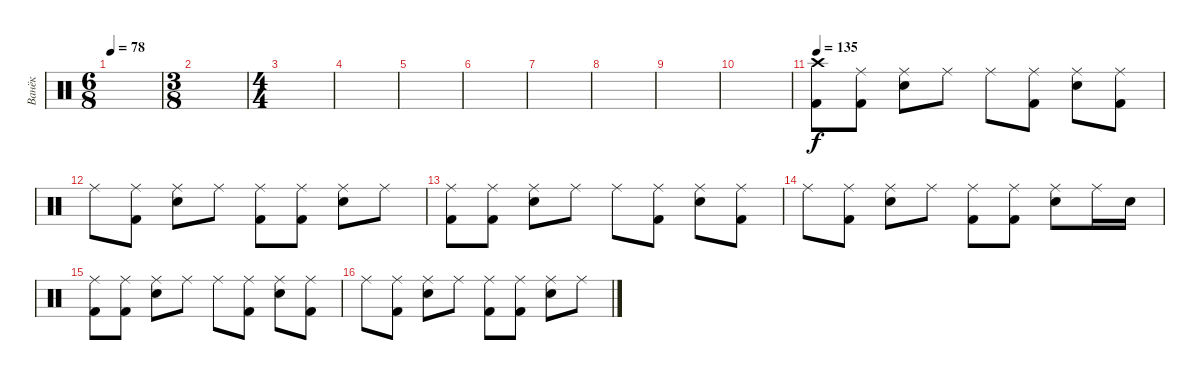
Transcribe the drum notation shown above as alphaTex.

\track ("Ванёк" "Ванёк") {instrument percussion}
\staff {score}
\articulation defaults
\ts (6 8)
\tempo 78
\clef neutral
\ks c
|
\ts (3 8)
|
\ts (4 4)
|
|
|
|
|
|
|
|
\tempo 135
("Crash high (hit)" "Kick (hit) 2").8 ("Ride (middle)" "Kick (hit) 2").8 ("Ride (middle)" "Snare (hit) 2").8 "Ride (middle)".8 "Ride (middle)".8 ("Ride (middle)" "Kick (hit) 2").8 ("Ride (middle)" "Snare (hit) 2").8 ("Ride (middle)" "Kick (hit) 2").8 |
"Ride (middle)".8 ("Ride (middle)" "Kick (hit) 2").8 ("Ride (middle)" "Snare (hit) 2").8 "Ride (middle)".8 ("Ride (middle)" "Kick (hit) 2").8 ("Ride (middle)" "Kick (hit) 2").8 ("Ride (middle)" "Snare (hit) 2").8 "Ride (middle)".8 |
("Ride (middle)" "Kick (hit) 2").8 ("Ride (middle)" "Kick (hit) 2").8 ("Ride (middle)" "Snare (hit) 2").8 "Ride (middle)".8 "Ride (middle)".8 ("Ride (middle)" "Kick (hit) 2").8 ("Ride (middle)" "Snare (hit) 2").8 ("Ride (middle)" "Kick (hit) 2").8 |
"Ride (middle)".8 ("Ride (middle)" "Kick (hit) 2").8 ("Ride (middle)" "Snare (hit) 2").8 "Ride (middle)".8 ("Ride (middle)" "Kick (hit) 2").8 ("Ride (middle)" "Kick (hit) 2").8 ("Ride (middle)" "Snare (hit) 2").8 "Ride (middle)".16 "Snare (hit) 2".16 |
("Ride (middle)" "Kick (hit) 2").8 ("Ride (middle)" "Kick (hit) 2").8 ("Ride (middle)" "Snare (hit) 2").8 "Ride (middle)".8 "Ride (middle)".8 ("Ride (middle)" "Kick (hit) 2").8 ("Ride (middle)" "Snare (hit) 2").8 ("Ride (middle)" "Kick (hit) 2").8 |
"Ride (middle)".8 ("Ride (middle)" "Kick (hit) 2").8 ("Ride (middle)" "Snare (hit) 2").8 "Ride (middle)".8 ("Ride (middle)" "Kick (hit) 2").8 ("Ride (middle)" "Kick (hit) 2").8 ("Ride (middle)" "Snare (hit) 2").8 "Ride (middle)".8
